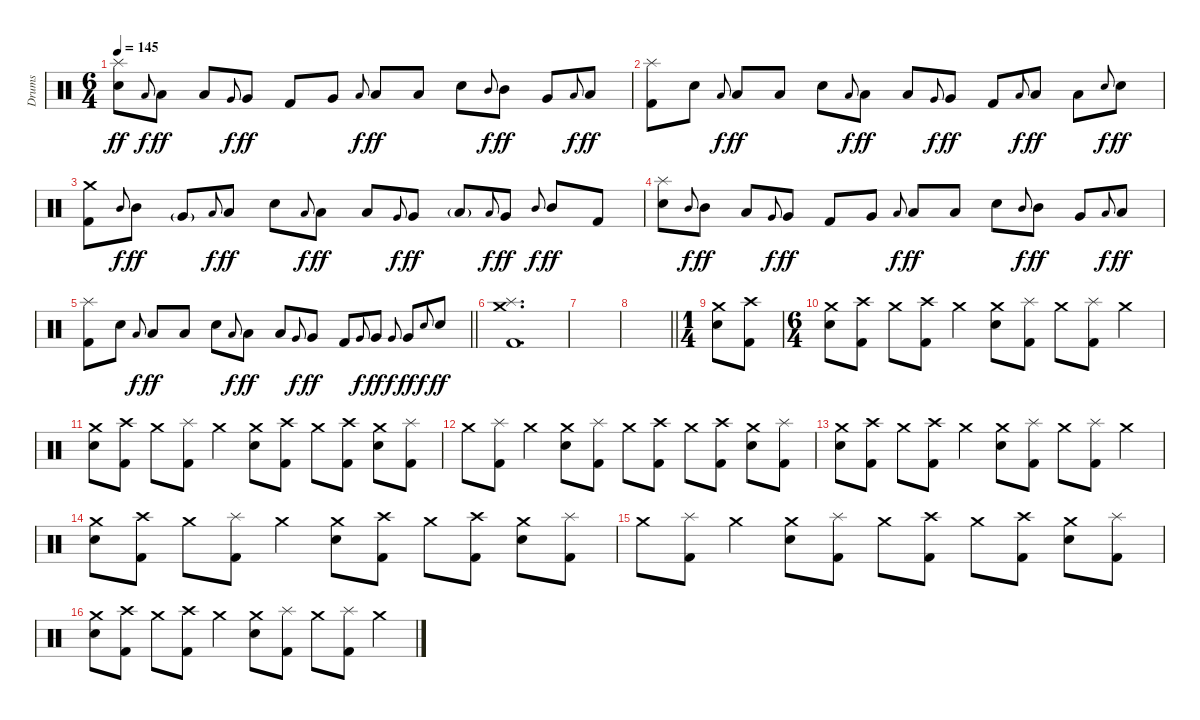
\track ("Drums" "Drums") {instrument percussion}
\staff {score}
\articulation defaults
\ts (6 4)
\tempo 145
\clef neutral
\ks c
("Splash (hit)" "Electric Snare (hit)").8{dy ff} "Low Tom (hit)".8{gr onbeat dy f} "Low Tom (hit)".8{dy ff} "Low Floor Tom (hit)".8 "Very Low Tom (hit)".8{gr onbeat dy f} "Very Low Tom (hit)".8{dy ff} "Kick (hit) 2".8 "Very Low Tom (hit)".8 "Low Tom (hit)".8{gr onbeat dy f} "Low Tom (hit)".8{dy ff} "Low Floor Tom (hit)".8 "Electric Snare (hit)".8 "Mid Tom (hit)".8{gr onbeat dy f} "Mid Tom (hit)".8{dy ff} "Very Low Tom (hit)".8 "Low Tom (hit)".8{gr onbeat dy f} "Low Tom (hit)".8{dy ff} |
("Splash (hit)" "Kick (hit) 2").8 "Electric Snare (hit)".8 "Low Tom (hit)".8{gr onbeat dy f} "Low Tom (hit)".8{dy ff} "Low Floor Tom (hit)".8 "Electric Snare (hit)".8 "Low Tom (hit)".8{gr onbeat dy f} "Low Tom (hit)".8{dy ff} "Low Floor Tom (hit)".8 "Very Low Tom (hit)".8{gr onbeat dy f} "Very Low Tom (hit)".8{dy ff} "Kick (hit) 2".8 "Low Tom (hit)".8{gr onbeat dy f} "Low Tom (hit)".8{dy ff} "Low Floor Tom (hit)".8 "Electric Snare (hit)".8{gr onbeat dy f} "Electric Snare (hit)".8{dy ff} |
("Crash medium (hit)" "Kick (hit) 2").8 "Mid Tom (hit)".8{gr onbeat dy f} "Mid Tom (hit)".8{dy ff} "Very Low Tom (hit)"{g}.8 "Low Tom (hit)".8{gr onbeat dy f} "Low Tom (hit)".8{dy ff} "Electric Snare (hit)".8 "Low Tom (hit)".8{gr onbeat dy f} "Low Tom (hit)".8{dy ff} "Low Floor Tom (hit)".8 "Very Low Tom (hit)".8{gr onbeat dy f} "Very Low Tom (hit)".8{dy ff} "Low Floor Tom (hit)"{g}.8 "Low Tom (hit)".8{gr onbeat dy f} "Very Low Tom (hit)".8{dy ff} "Mid Tom (hit)".8{gr onbeat dy f} "Mid Tom (hit)".8{dy ff} "Kick (hit) 2".8 |
("Splash (hit)" "Electric Snare (hit)").8 "Mid Tom (hit)".8{gr onbeat dy f} "Mid Tom (hit)".8{dy ff} "Low Floor Tom (hit)".8 "Very Low Tom (hit)".8{gr onbeat dy f} "Very Low Tom (hit)".8{dy ff} "Kick (hit) 2".8 "Very Low Tom (hit)".8 "Low Tom (hit)".8{gr onbeat dy f} "Low Tom (hit)".8{dy ff} "Low Floor Tom (hit)".8 "Electric Snare (hit)".8 "Mid Tom (hit)".8{gr onbeat dy f} "Mid Tom (hit)".8{dy ff} "Very Low Tom (hit)".8 "Low Tom (hit)".8{gr onbeat dy f} "Low Tom (hit)".8{dy ff} |
\barLineRight lightlight
("Splash (hit)" "Kick (hit) 2").8 "Electric Snare (hit)".8 "Low Tom (hit)".8{gr onbeat dy f} "Low Tom (hit)".8{dy ff} "Low Floor Tom (hit)".8 "Electric Snare (hit)".8 "Low Tom (hit)".8{gr onbeat dy f} "Low Tom (hit)".8{dy ff} "Low Floor Tom (hit)".8 "Very Low Tom (hit)".8{gr onbeat dy f} "Very Low Tom (hit)".8{dy ff} "Kick (hit) 2".8 "Very Low Tom (hit)".8{gr onbeat dy f} "Very Low Tom (hit)".8{dy ff} "Very Low Tom (hit)".8{gr onbeat dy f} "Very Low Tom (hit)".8{dy ff} "Electric Snare (hit)".8{gr onbeat dy f} "Electric Snare (hit)".8{dy ff} |
\section ("" "")
("Crash medium (hit)" "Splash (hit)" "Kick (hit) 2").1{d} |
|
\barLineRight lightlight
|
\ts (1 4)
\section ("" "")
("Crash medium (hit)" "Electric Snare (hit)").8{volume 16} ("Crash high (hit)" "Kick (hit) 2").8 |
\ts (6 4)
("Crash medium (hit)" "Electric Snare (hit)").8 ("Crash high (hit)" "Kick (hit) 2").8 "Crash medium (hit)".8 ("Crash high (hit)" "Kick (hit) 2").8 "Crash medium (hit)".4 ("Crash medium (hit)" "Electric Snare (hit)").8 ("Splash (hit)" "Kick (hit) 2").8 "Crash medium (hit)".8 ("Splash (hit)" "Kick (hit) 2").8 "Crash medium (hit)".4 |
("Crash medium (hit)" "Electric Snare (hit)").8 ("Crash high (hit)" "Kick (hit) 2").8 "Crash medium (hit)".8 ("Splash (hit)" "Kick (hit) 2").8 "Crash medium (hit)".4 ("Crash medium (hit)" "Electric Snare (hit)").8 ("Crash high (hit)" "Kick (hit) 2").8 "Crash medium (hit)".8 ("Crash high (hit)" "Kick (hit) 2").8 ("Crash medium (hit)" "Electric Snare (hit)").8 ("Splash (hit)" "Kick (hit) 2").8 |
"Crash medium (hit)".8 ("Splash (hit)" "Kick (hit) 2").8 "Crash medium (hit)".4 ("Crash medium (hit)" "Electric Snare (hit)").8 ("Splash (hit)" "Kick (hit) 2").8 "Crash medium (hit)".8 ("Crash high (hit)" "Kick (hit) 2").8 "Crash medium (hit)".8 ("Crash high (hit)" "Kick (hit) 2").8 ("Crash medium (hit)" "Electric Snare (hit)").8 ("Splash (hit)" "Kick (hit) 2").8 |
("Crash medium (hit)" "Electric Snare (hit)").8 ("Crash high (hit)" "Kick (hit) 2").8 "Crash medium (hit)".8 ("Crash high (hit)" "Kick (hit) 2").8 "Crash medium (hit)".4 ("Crash medium (hit)" "Electric Snare (hit)").8 ("Splash (hit)" "Kick (hit) 2").8 "Crash medium (hit)".8 ("Splash (hit)" "Kick (hit) 2").8 "Crash medium (hit)".4 |
("Crash medium (hit)" "Electric Snare (hit)").8 ("Crash high (hit)" "Kick (hit) 2").8 "Crash medium (hit)".8 ("Splash (hit)" "Kick (hit) 2").8 "Crash medium (hit)".4 ("Crash medium (hit)" "Electric Snare (hit)").8 ("Crash high (hit)" "Kick (hit) 2").8 "Crash medium (hit)".8 ("Crash high (hit)" "Kick (hit) 2").8 ("Crash medium (hit)" "Electric Snare (hit)").8 ("Splash (hit)" "Kick (hit) 2").8 |
"Crash medium (hit)".8 ("Splash (hit)" "Kick (hit) 2").8 "Crash medium (hit)".4 ("Crash medium (hit)" "Electric Snare (hit)").8 ("Splash (hit)" "Kick (hit) 2").8 "Crash medium (hit)".8 ("Crash high (hit)" "Kick (hit) 2").8 "Crash medium (hit)".8 ("Crash high (hit)" "Kick (hit) 2").8 ("Crash medium (hit)" "Electric Snare (hit)").8 ("Splash (hit)" "Kick (hit) 2").8 |
("Crash medium (hit)" "Electric Snare (hit)").8 ("Crash high (hit)" "Kick (hit) 2").8 "Crash medium (hit)".8 ("Crash high (hit)" "Kick (hit) 2").8 "Crash medium (hit)".4 ("Crash medium (hit)" "Electric Snare (hit)").8 ("Splash (hit)" "Kick (hit) 2").8 "Crash medium (hit)".8 ("Splash (hit)" "Kick (hit) 2").8 "Crash medium (hit)".4
